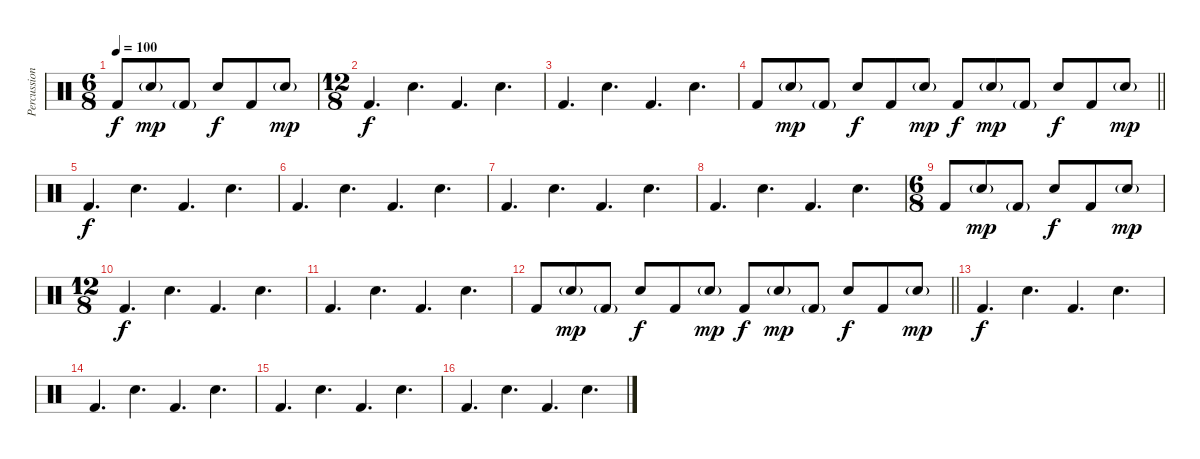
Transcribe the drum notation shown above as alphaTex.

\track ("Percussion" "Percussion") {instrument percussion}
\staff {score}
\articulation defaults
\ts (6 8)
\tempo 100
\clef neutral
\ks c "Kick (hit) 2".8{dy f} "Snare (hit) 2"{g}.8{dy mp} "Kick (hit) 2"{g}.8 "Snare (hit) 2".8{dy f} "Kick (hit) 2".8 "Snare (hit) 2"{g}.8{dy mp}
|
\ts (12 8)
"Kick (hit) 2".4{d dy f} "Snare (hit) 2".4{d} "Kick (hit) 2".4{d} "Snare (hit) 2".4{d} |
"Kick (hit) 2".4{d} "Snare (hit) 2".4{d} "Kick (hit) 2".4{d} "Snare (hit) 2".4{d} |
\barLineRight lightlight "Kick (hit) 2".8 "Snare (hit) 2"{g}.8{dy mp} "Kick (hit) 2"{g}.8 "Snare (hit) 2".8{dy f} "Kick (hit) 2".8 "Snare (hit) 2"{g}.8{dy mp} "Kick (hit) 2".8{dy f} "Snare (hit) 2"{g}.8{dy mp} "Kick (hit) 2"{g}.8 "Snare (hit) 2".8{dy f} "Kick (hit) 2".8 "Snare (hit) 2"{g}.8{dy mp}
|
"Kick (hit) 2".4{d dy f} "Snare (hit) 2".4{d} "Kick (hit) 2".4{d} "Snare (hit) 2".4{d} |
"Kick (hit) 2".4{d} "Snare (hit) 2".4{d} "Kick (hit) 2".4{d} "Snare (hit) 2".4{d} |
"Kick (hit) 2".4{d} "Snare (hit) 2".4{d} "Kick (hit) 2".4{d} "Snare (hit) 2".4{d} |
"Kick (hit) 2".4{d} "Snare (hit) 2".4{d} "Kick (hit) 2".4{d} "Snare (hit) 2".4{d} |
\ts (6 8)
"Kick (hit) 2".8 "Snare (hit) 2"{g}.8{dy mp} "Kick (hit) 2"{g}.8 "Snare (hit) 2".8{dy f} "Kick (hit) 2".8 "Snare (hit) 2"{g}.8{dy mp} |
\ts (12 8)
"Kick (hit) 2".4{d dy f} "Snare (hit) 2".4{d} "Kick (hit) 2".4{d} "Snare (hit) 2".4{d} |
"Kick (hit) 2".4{d} "Snare (hit) 2".4{d} "Kick (hit) 2".4{d} "Snare (hit) 2".4{d} |
\barLineRight lightlight "Kick (hit) 2".8 "Snare (hit) 2"{g}.8{dy mp} "Kick (hit) 2"{g}.8 "Snare (hit) 2".8{dy f} "Kick (hit) 2".8 "Snare (hit) 2"{g}.8{dy mp} "Kick (hit) 2".8{dy f} "Snare (hit) 2"{g}.8{dy mp} "Kick (hit) 2"{g}.8 "Snare (hit) 2".8{dy f} "Kick (hit) 2".8 "Snare (hit) 2"{g}.8{dy mp}
|
"Kick (hit) 2".4{d dy f} "Snare (hit) 2".4{d} "Kick (hit) 2".4{d} "Snare (hit) 2".4{d} |
"Kick (hit) 2".4{d} "Snare (hit) 2".4{d} "Kick (hit) 2".4{d} "Snare (hit) 2".4{d} |
"Kick (hit) 2".4{d} "Snare (hit) 2".4{d} "Kick (hit) 2".4{d} "Snare (hit) 2".4{d} |
"Kick (hit) 2".4{d} "Snare (hit) 2".4{d} "Kick (hit) 2".4{d} "Snare (hit) 2".4{d}
